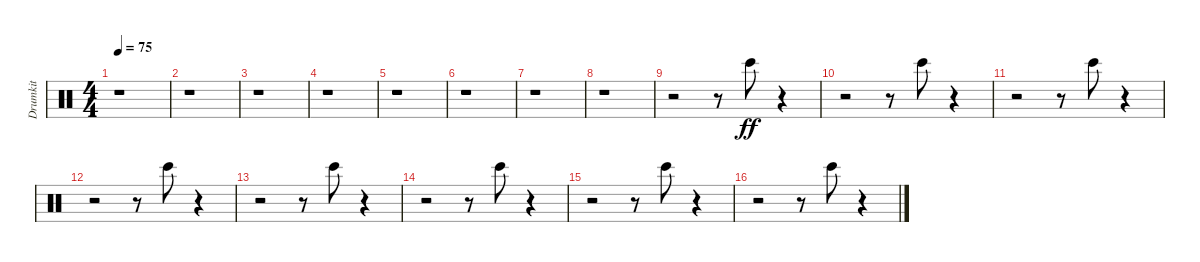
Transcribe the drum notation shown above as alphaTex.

\track ("Drumkit" "Drumkit") {instrument percussion}
\staff {score}
\articulation defaults
\ts (4 4)
\tempo 75
\clef neutral
\ks c
r.1{dy ff} |
r.1 |
r.1 |
r.1 |
r.1 |
r.1 |
r.1 |
r.1 |
r.2 r.8 "Bongo High (hit)".8 r.4 |
r.2 r.8 "Bongo High (hit)".8 r.4 |
r.2 r.8 "Bongo High (hit)".8 r.4 |
r.2 r.8 "Bongo High (hit)".8 r.4 |
r.2 r.8 "Bongo High (hit)".8 r.4 |
r.2 r.8 "Bongo High (hit)".8 r.4 |
r.2 r.8 "Bongo High (hit)".8 r.4 |
r.2 r.8 "Bongo High (hit)".8 r.4
